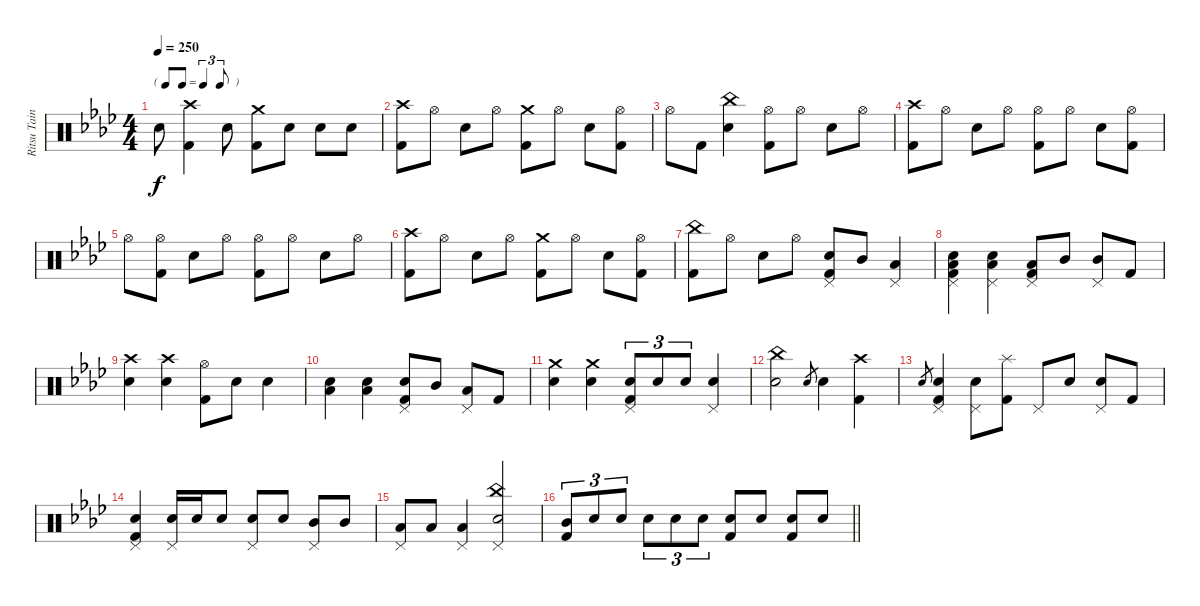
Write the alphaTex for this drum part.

\track ("Ritsu Tainaka" "Ritsu Tain") {instrument percussion}
\staff {score}
\articulation defaults
\ts (4 4)
\tf triplet8th
\tempo 250
\clef neutral
\ks ab "Electric Snare (hit)".8{dy f}
("Crash high (hit)" "Kick (hit) 2").4 "Electric Snare (hit)".8 ("Crash medium (hit)" "Kick (hit) 2").8 "Electric Snare (hit)".8 "Electric Snare (hit)".8 "Electric Snare (hit)".8 |
("Crash high (hit)" "Kick (hit) 2").8 "Hi-Hat (open)".8 "Electric Snare (hit)".8 "Hi-Hat (open)".8 ("Crash medium (hit)" "Kick (hit) 2").8 "Hi-Hat (open)".8 "Electric Snare (hit)".8 ("Hi-Hat (open)" "Kick (hit) 2").8 |
"Hi-Hat (open)".8 "Kick (hit) 2".8 ("China (hit)" "Electric Snare (hit)").4 ("Hi-Hat (open)" "Kick (hit) 2").8 "Hi-Hat (open)".8 "Electric Snare (hit)".8 "Hi-Hat (open)".8 |
("Crash high (hit)" "Kick (hit) 2").8 "Hi-Hat (open)".8 "Electric Snare (hit)".8 "Hi-Hat (open)".8 ("Hi-Hat (open)" "Kick (hit) 2").8 "Hi-Hat (open)".8 "Electric Snare (hit)".8 ("Hi-Hat (open)" "Kick (hit) 2").8 |
"Hi-Hat (open)".8 ("Hi-Hat (open)" "Kick (hit) 2").8 "Electric Snare (hit)".8 "Hi-Hat (open)".8 ("Hi-Hat (open)" "Kick (hit) 2").8 "Hi-Hat (open)".8 "Electric Snare (hit)".8 "Hi-Hat (open)".8 |
("Crash high (hit)" "Kick (hit) 2").8 "Hi-Hat (open)".8 "Electric Snare (hit)".8 "Hi-Hat (open)".8 ("Crash medium (hit)" "Kick (hit) 2").8 "Hi-Hat (open)".8 "Electric Snare (hit)".8 ("Hi-Hat (open)" "Kick (hit) 2").8 |
("China (hit)" "Kick (hit) 2").8 "Hi-Hat (open)".8 "Electric Snare (hit)".8 "Hi-Hat (open)".8 ("Pedal Hi-Hat (hit)" "Electric Snare (hit)" "Kick (hit) 2").8 "Mid Tom (hit)".8 ("Pedal Hi-Hat (hit)" "Low Floor Tom (hit)").4 |
("Pedal Hi-Hat (hit)" "Electric Snare (hit)" "Low Floor Tom (hit)" "Kick (hit) 2").4 ("Pedal Hi-Hat (hit)" "Electric Snare (hit)" "Low Floor Tom (hit)").4 ("Pedal Hi-Hat (hit)" "Low Floor Tom (hit)" "Kick (hit) 2").8 "Mid Tom (hit)".8 ("Pedal Hi-Hat (hit)" "Mid Tom (hit)").8 "Kick (hit) 2".8 |
("Crash high (hit)" "Electric Snare (hit)").4 ("Crash high (hit)" "Electric Snare (hit)").4 ("Hi-Hat (open)" "Kick (hit) 2").8 "Electric Snare (hit)".8 "Electric Snare (hit)".4 |
("Electric Snare (hit)" "Low Floor Tom (hit)").4 ("Electric Snare (hit)" "Low Floor Tom (hit)").4 ("Pedal Hi-Hat (hit)" "Electric Snare (hit)" "Kick (hit) 2").8 "Mid Tom (hit)".8 ("Pedal Hi-Hat (hit)" "Low Floor Tom (hit)").8 "Kick (hit) 2".8 |
("Crash medium (hit)" "Electric Snare (hit)").4 ("Crash medium (hit)" "Electric Snare (hit)").4 ("Pedal Hi-Hat (hit)" "Electric Snare (hit)" "Kick (hit) 2").8{tu (3 2)} "Electric Snare (hit)".8{tu (3 2)} "Electric Snare (hit)".8{tu (3 2)} ("Pedal Hi-Hat (hit)" "Electric Snare (hit)").4 |
("China (hit)" "Electric Snare (hit)").2 "Electric Snare (hit)".8{gr} "Electric Snare (hit)".4 ("Crash high (hit)" "Kick (hit) 2").4 |
"Electric Snare (hit)".8{gr} ("Pedal Hi-Hat (hit)" "Electric Snare (hit)" "Kick (hit) 2").4 ("Pedal Hi-Hat (hit)" "Electric Snare (hit)").8 ("Splash (hit)" "Kick (hit) 2").8 "Pedal Hi-Hat (hit)".8 "Electric Snare (hit)".8 ("Pedal Hi-Hat (hit)" "Electric Snare (hit)").8 "Kick (hit) 2".8 |
("Pedal Hi-Hat (hit)" "Electric Snare (hit)" "Kick (hit) 2").4 ("Pedal Hi-Hat (hit)" "Electric Snare (hit)").16 "Electric Snare (hit)".16 "Electric Snare (hit)".8 ("Pedal Hi-Hat (hit)" "Electric Snare (hit)").8 "Electric Snare (hit)".8 ("Pedal Hi-Hat (hit)" "Mid Tom (hit)").8 "Mid Tom (hit)".8 |
("Pedal Hi-Hat (hit)" "Low Tom (hit)").8 "Low Tom (hit)".8 ("Pedal Hi-Hat (hit)" "Low Tom (hit)").4 ("China (hit)" "Pedal Hi-Hat (hit)" "Electric Snare (hit)").2 |
\barLineRight lightlight
("Mid Tom (hit)" "Kick (hit) 2").8{tu (3 2)} "Electric Snare (hit)".8{tu (3 2)} "Electric Snare (hit)".8{tu (3 2)} "Electric Snare (hit)".8{tu (3 2)} "Electric Snare (hit)".8{tu (3 2)} "Electric Snare (hit)".8{tu (3 2)} ("Electric Snare (hit)" "Kick (hit) 2").8 "Electric Snare (hit)".8 ("Electric Snare (hit)" "Kick (hit) 2").8 "Electric Snare (hit)".8
